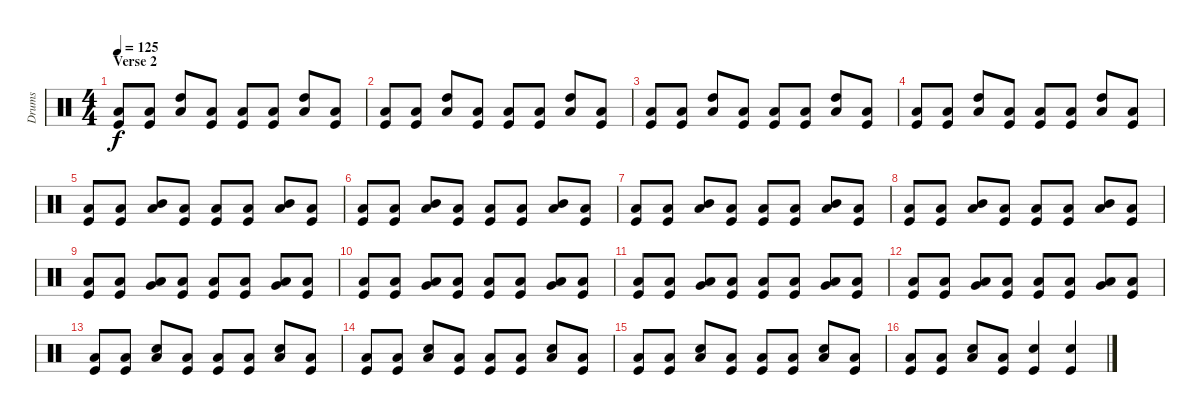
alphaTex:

\track ("Drums" "Drums") {instrument percussion}
\staff {score}
\articulation defaults
\ts (4 4)
\section ("" "Verse 2")
\tempo 125
\clef neutral
\ks c
("Low Floor Tom (hit)" "Kick (hit)").8{dy f} ("Low Floor Tom (hit)" "Kick (hit)").8 ("Low Floor Tom (hit)" "High Tom (hit)").8 ("Low Floor Tom (hit)" "Kick (hit)").8 ("Low Floor Tom (hit)" "Kick (hit)").8 ("Low Floor Tom (hit)" "Kick (hit)").8 ("Low Floor Tom (hit)" "High Tom (hit)").8 ("Low Floor Tom (hit)" "Kick (hit)").8 |
("Low Floor Tom (hit)" "Kick (hit)").8 ("Low Floor Tom (hit)" "Kick (hit)").8 ("Low Floor Tom (hit)" "High Tom (hit)").8 ("Low Floor Tom (hit)" "Kick (hit)").8 ("Low Floor Tom (hit)" "Kick (hit)").8 ("Low Floor Tom (hit)" "Kick (hit)").8 ("Low Floor Tom (hit)" "High Tom (hit)").8 ("Low Floor Tom (hit)" "Kick (hit)").8 |
("Low Floor Tom (hit)" "Kick (hit)").8 ("Low Floor Tom (hit)" "Kick (hit)").8 ("Low Floor Tom (hit)" "High Tom (hit)").8 ("Low Floor Tom (hit)" "Kick (hit)").8 ("Low Floor Tom (hit)" "Kick (hit)").8 ("Low Floor Tom (hit)" "Kick (hit)").8 ("Low Floor Tom (hit)" "High Tom (hit)").8 ("Low Floor Tom (hit)" "Kick (hit)").8 |
("Low Floor Tom (hit)" "Kick (hit)").8 ("Low Floor Tom (hit)" "Kick (hit)").8 ("Low Floor Tom (hit)" "High Tom (hit)").8 ("Low Floor Tom (hit)" "Kick (hit)").8 ("Low Floor Tom (hit)" "Kick (hit)").8 ("Low Floor Tom (hit)" "Kick (hit)").8 ("Low Floor Tom (hit)" "High Tom (hit)").8 ("Low Floor Tom (hit)" "Kick (hit)").8 |
("Low Floor Tom (hit)" "Kick (hit)").8 ("Low Floor Tom (hit)" "Kick (hit)").8 ("Low Floor Tom (hit)" "Mid Tom (hit)").8 ("Low Floor Tom (hit)" "Kick (hit)").8 ("Low Floor Tom (hit)" "Kick (hit)").8 ("Low Floor Tom (hit)" "Kick (hit)").8 ("Low Floor Tom (hit)" "Mid Tom (hit)").8 ("Low Floor Tom (hit)" "Kick (hit)").8 |
("Low Floor Tom (hit)" "Kick (hit)").8 ("Low Floor Tom (hit)" "Kick (hit)").8 ("Low Floor Tom (hit)" "Mid Tom (hit)").8 ("Low Floor Tom (hit)" "Kick (hit)").8 ("Low Floor Tom (hit)" "Kick (hit)").8 ("Low Floor Tom (hit)" "Kick (hit)").8 ("Low Floor Tom (hit)" "Mid Tom (hit)").8 ("Low Floor Tom (hit)" "Kick (hit)").8 |
("Low Floor Tom (hit)" "Kick (hit)").8 ("Low Floor Tom (hit)" "Kick (hit)").8 ("Low Floor Tom (hit)" "Mid Tom (hit)").8 ("Low Floor Tom (hit)" "Kick (hit)").8 ("Low Floor Tom (hit)" "Kick (hit)").8 ("Low Floor Tom (hit)" "Kick (hit)").8 ("Low Floor Tom (hit)" "Mid Tom (hit)").8 ("Low Floor Tom (hit)" "Kick (hit)").8 |
("Low Floor Tom (hit)" "Kick (hit)").8 ("Low Floor Tom (hit)" "Kick (hit)").8 ("Low Floor Tom (hit)" "Mid Tom (hit)").8 ("Low Floor Tom (hit)" "Kick (hit)").8 ("Low Floor Tom (hit)" "Kick (hit)").8 ("Low Floor Tom (hit)" "Kick (hit)").8 ("Low Floor Tom (hit)" "Mid Tom (hit)").8 ("Low Floor Tom (hit)" "Kick (hit)").8 |
("Low Floor Tom (hit)" "Kick (hit)").8 ("Low Floor Tom (hit)" "Kick (hit)").8 ("Low Floor Tom (hit)" "Very Low Tom (hit)").8 ("Low Floor Tom (hit)" "Kick (hit)").8 ("Low Floor Tom (hit)" "Kick (hit)").8 ("Low Floor Tom (hit)" "Kick (hit)").8 ("Low Floor Tom (hit)" "Very Low Tom (hit)").8 ("Low Floor Tom (hit)" "Kick (hit)").8 |
("Low Floor Tom (hit)" "Kick (hit)").8 ("Low Floor Tom (hit)" "Kick (hit)").8 ("Low Floor Tom (hit)" "Very Low Tom (hit)").8 ("Low Floor Tom (hit)" "Kick (hit)").8 ("Low Floor Tom (hit)" "Kick (hit)").8 ("Low Floor Tom (hit)" "Kick (hit)").8 ("Low Floor Tom (hit)" "Very Low Tom (hit)").8 ("Low Floor Tom (hit)" "Kick (hit)").8 |
("Low Floor Tom (hit)" "Kick (hit)").8 ("Low Floor Tom (hit)" "Kick (hit)").8 ("Low Floor Tom (hit)" "Very Low Tom (hit)").8 ("Low Floor Tom (hit)" "Kick (hit)").8 ("Low Floor Tom (hit)" "Kick (hit)").8 ("Low Floor Tom (hit)" "Kick (hit)").8 ("Low Floor Tom (hit)" "Very Low Tom (hit)").8 ("Low Floor Tom (hit)" "Kick (hit)").8 |
("Low Floor Tom (hit)" "Kick (hit)").8 ("Low Floor Tom (hit)" "Kick (hit)").8 ("Low Floor Tom (hit)" "Very Low Tom (hit)").8 ("Low Floor Tom (hit)" "Kick (hit)").8 ("Low Floor Tom (hit)" "Kick (hit)").8 ("Low Floor Tom (hit)" "Kick (hit)").8 ("Low Floor Tom (hit)" "Very Low Tom (hit)").8 ("Low Floor Tom (hit)" "Kick (hit)").8 |
("Low Floor Tom (hit)" "Kick (hit)").8 ("Low Floor Tom (hit)" "Kick (hit)").8 ("Low Floor Tom (hit)" "Electric Snare (hit)").8 ("Low Floor Tom (hit)" "Kick (hit)").8 ("Low Floor Tom (hit)" "Kick (hit)").8 ("Low Floor Tom (hit)" "Kick (hit)").8 ("Low Floor Tom (hit)" "Electric Snare (hit)").8 ("Low Floor Tom (hit)" "Kick (hit)").8 |
("Low Floor Tom (hit)" "Kick (hit)").8 ("Low Floor Tom (hit)" "Kick (hit)").8 ("Low Floor Tom (hit)" "Electric Snare (hit)").8 ("Low Floor Tom (hit)" "Kick (hit)").8 ("Low Floor Tom (hit)" "Kick (hit)").8 ("Low Floor Tom (hit)" "Kick (hit)").8 ("Low Floor Tom (hit)" "Electric Snare (hit)").8 ("Low Floor Tom (hit)" "Kick (hit)").8 |
("Low Floor Tom (hit)" "Kick (hit)").8 ("Low Floor Tom (hit)" "Kick (hit)").8 ("Low Floor Tom (hit)" "Electric Snare (hit)").8 ("Low Floor Tom (hit)" "Kick (hit)").8 ("Low Floor Tom (hit)" "Kick (hit)").8 ("Low Floor Tom (hit)" "Kick (hit)").8 ("Low Floor Tom (hit)" "Electric Snare (hit)").8 ("Low Floor Tom (hit)" "Kick (hit)").8 |
("Low Floor Tom (hit)" "Kick (hit)").8 ("Low Floor Tom (hit)" "Kick (hit)").8 ("Low Floor Tom (hit)" "Electric Snare (hit)").8 ("Low Floor Tom (hit)" "Kick (hit)").8 ("Electric Snare (hit)" "Kick (hit)").4 ("Electric Snare (hit)" "Kick (hit)").4
